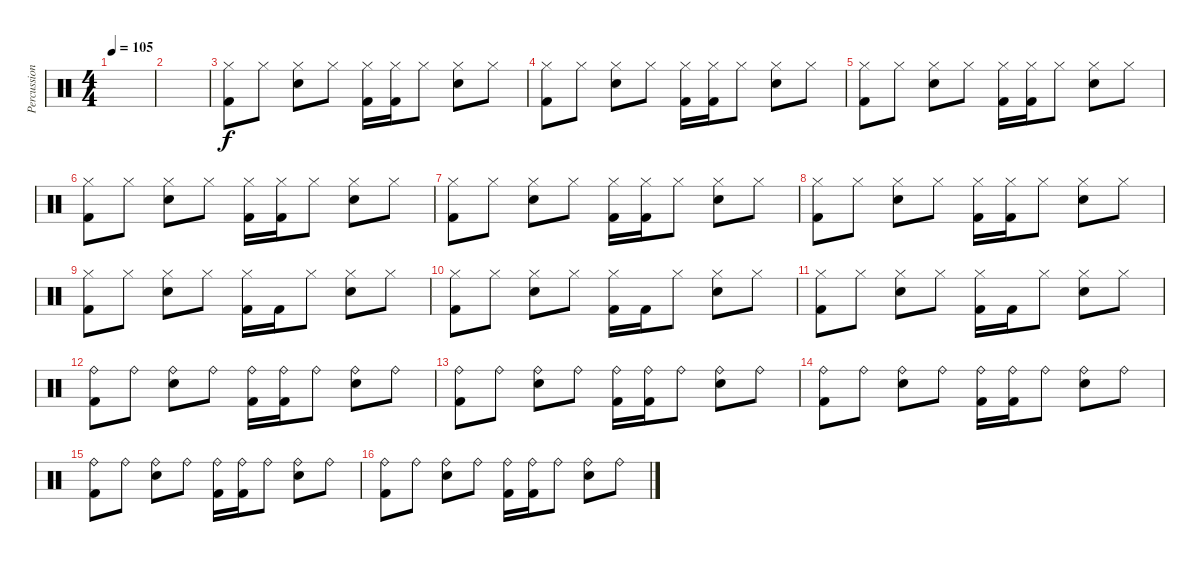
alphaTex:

\track ("Percussions" "Percussion") {instrument percussion}
\staff {score}
\articulation defaults
\ts (4 4)
\tempo 105
\clef neutral
\ks c
|
|
("Hi-Hat (closed)" "Kick (hit) 2").8 "Hi-Hat (closed)".8 ("Hi-Hat (closed)" "Electric Snare (hit)").8 "Hi-Hat (closed)".8 ("Hi-Hat (closed)" "Kick (hit) 2").16 ("Hi-Hat (closed)" "Kick (hit) 2").16 "Hi-Hat (closed)".8 ("Hi-Hat (closed)" "Electric Snare (hit)").8 "Hi-Hat (closed)".8 |
("Hi-Hat (closed)" "Kick (hit) 2").8 "Hi-Hat (closed)".8 ("Hi-Hat (closed)" "Electric Snare (hit)").8 "Hi-Hat (closed)".8 ("Hi-Hat (closed)" "Kick (hit) 2").16 ("Hi-Hat (closed)" "Kick (hit) 2").16 "Hi-Hat (closed)".8 ("Hi-Hat (closed)" "Electric Snare (hit)").8 "Hi-Hat (closed)".8 |
("Hi-Hat (closed)" "Kick (hit) 2").8 "Hi-Hat (closed)".8 ("Hi-Hat (closed)" "Electric Snare (hit)").8 "Hi-Hat (closed)".8 ("Hi-Hat (closed)" "Kick (hit) 2").16 ("Hi-Hat (closed)" "Kick (hit) 2").16 "Hi-Hat (closed)".8 ("Hi-Hat (closed)" "Electric Snare (hit)").8 "Hi-Hat (closed)".8 |
("Hi-Hat (closed)" "Kick (hit) 2").8 "Hi-Hat (closed)".8 ("Hi-Hat (closed)" "Electric Snare (hit)").8 "Hi-Hat (closed)".8 ("Hi-Hat (closed)" "Kick (hit) 2").16 ("Hi-Hat (closed)" "Kick (hit) 2").16 "Hi-Hat (closed)".8 ("Hi-Hat (closed)" "Electric Snare (hit)").8 "Hi-Hat (closed)".8 |
("Hi-Hat (closed)" "Kick (hit) 2").8 "Hi-Hat (closed)".8 ("Hi-Hat (closed)" "Electric Snare (hit)").8 "Hi-Hat (closed)".8 ("Hi-Hat (closed)" "Kick (hit) 2").16 ("Hi-Hat (closed)" "Kick (hit) 2").16 "Hi-Hat (closed)".8 ("Hi-Hat (closed)" "Electric Snare (hit)").8 "Hi-Hat (closed)".8 |
("Hi-Hat (closed)" "Kick (hit) 2").8 "Hi-Hat (closed)".8 ("Hi-Hat (closed)" "Electric Snare (hit)").8 "Hi-Hat (closed)".8 ("Hi-Hat (closed)" "Kick (hit) 2").16 ("Hi-Hat (closed)" "Kick (hit) 2").16 "Hi-Hat (closed)".8 ("Hi-Hat (closed)" "Electric Snare (hit)").8 "Hi-Hat (closed)".8 |
("Hi-Hat (closed)" "Kick (hit) 2").8 "Hi-Hat (closed)".8 ("Hi-Hat (closed)" "Electric Snare (hit)").8 "Hi-Hat (closed)".8 ("Hi-Hat (closed)" "Kick (hit) 2").16 "Kick (hit) 2".16 "Hi-Hat (closed)".8 ("Hi-Hat (closed)" "Electric Snare (hit)").8 "Hi-Hat (closed)".8 |
("Hi-Hat (closed)" "Kick (hit) 2").8 "Hi-Hat (closed)".8 ("Hi-Hat (closed)" "Electric Snare (hit)").8 "Hi-Hat (closed)".8 ("Hi-Hat (closed)" "Kick (hit) 2").16 "Kick (hit) 2".16 "Hi-Hat (closed)".8 ("Hi-Hat (closed)" "Electric Snare (hit)").8 "Hi-Hat (closed)".8 |
("Hi-Hat (closed)" "Kick (hit) 2").8 "Hi-Hat (closed)".8 ("Hi-Hat (closed)" "Electric Snare (hit)").8 "Hi-Hat (closed)".8 ("Hi-Hat (closed)" "Kick (hit) 2").16 "Kick (hit) 2".16 "Hi-Hat (closed)".8 ("Hi-Hat (closed)" "Electric Snare (hit)").8 "Hi-Hat (closed)".8 |
("Ride (bell)" "Kick (hit) 2").8 "Ride (bell)".8 ("Ride (bell)" "Electric Snare (hit)").8 "Ride (bell)".8 ("Ride (bell)" "Kick (hit) 2").16 ("Ride (bell)" "Kick (hit) 2").16 "Ride (bell)".8 ("Ride (bell)" "Electric Snare (hit)").8 "Ride (bell)".8 |
("Ride (bell)" "Kick (hit) 2").8 "Ride (bell)".8 ("Ride (bell)" "Electric Snare (hit)").8 "Ride (bell)".8 ("Ride (bell)" "Kick (hit) 2").16 ("Ride (bell)" "Kick (hit) 2").16 "Ride (bell)".8 ("Ride (bell)" "Electric Snare (hit)").8 "Ride (bell)".8 |
("Ride (bell)" "Kick (hit) 2").8 "Ride (bell)".8 ("Ride (bell)" "Electric Snare (hit)").8 "Ride (bell)".8 ("Ride (bell)" "Kick (hit) 2").16 ("Ride (bell)" "Kick (hit) 2").16 "Ride (bell)".8 ("Ride (bell)" "Electric Snare (hit)").8 "Ride (bell)".8 |
("Ride (bell)" "Kick (hit) 2").8 "Ride (bell)".8 ("Ride (bell)" "Electric Snare (hit)").8 "Ride (bell)".8 ("Ride (bell)" "Kick (hit) 2").16 ("Ride (bell)" "Kick (hit) 2").16 "Ride (bell)".8 ("Ride (bell)" "Electric Snare (hit)").8 "Ride (bell)".8 |
("Ride (bell)" "Kick (hit) 2").8 "Ride (bell)".8 ("Ride (bell)" "Electric Snare (hit)").8 "Ride (bell)".8 ("Ride (bell)" "Kick (hit) 2").16 ("Ride (bell)" "Kick (hit) 2").16 "Ride (bell)".8 ("Ride (bell)" "Electric Snare (hit)").8 "Ride (bell)".8
